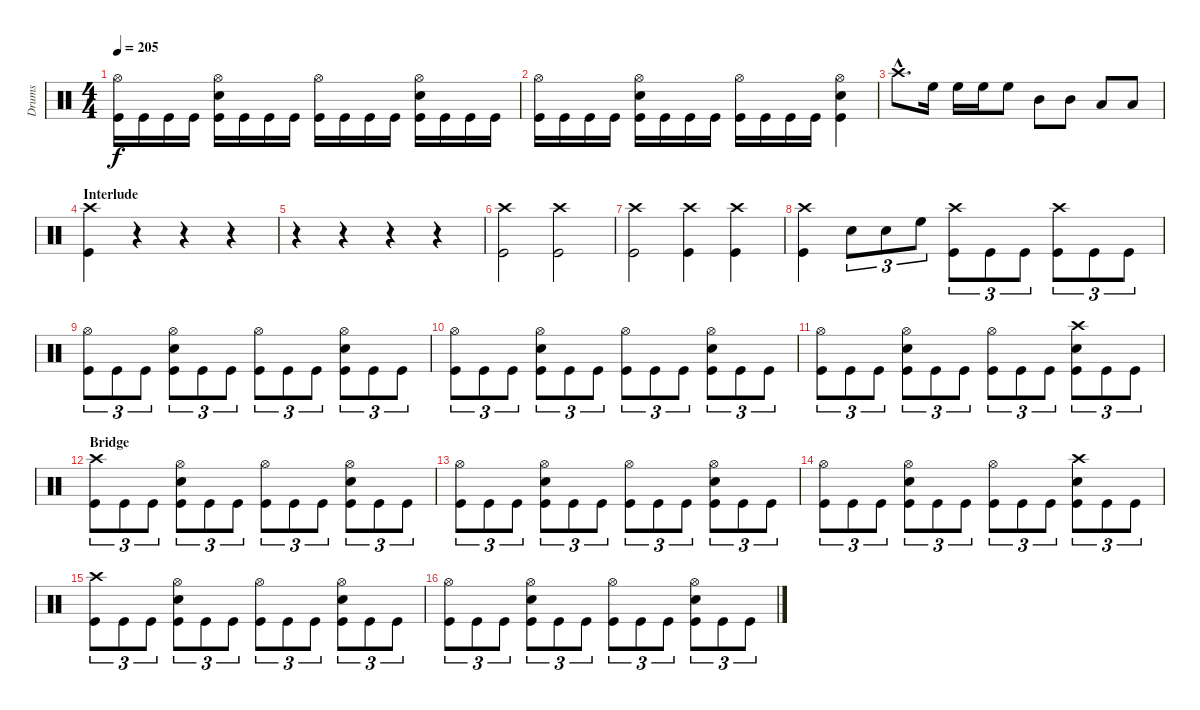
\track ("Drums" "Drums") {instrument percussion}
\staff {score}
\articulation defaults
\ts (4 4)
\tempo 205
\clef neutral
\ks c
("Hi-Hat (open)" "Kick (hit)").16{dy f} "Kick (hit)".16 "Kick (hit)".16 "Kick (hit)".16 ("Hi-Hat (open)" "Snare (hit) 2" "Kick (hit)").16 "Kick (hit)".16 "Kick (hit)".16 "Kick (hit)".16 ("Hi-Hat (open)" "Kick (hit)").16 "Kick (hit)".16 "Kick (hit)".16 "Kick (hit)".16 ("Hi-Hat (open)" "Snare (hit) 2" "Kick (hit)").16 "Kick (hit)".16 "Kick (hit)".16 "Kick (hit)".16 |
("Hi-Hat (open)" "Kick (hit)").16 "Kick (hit)".16 "Kick (hit)".16 "Kick (hit)".16 ("Hi-Hat (open)" "Snare (hit) 2" "Kick (hit)").16 "Kick (hit)".16 "Kick (hit)".16 "Kick (hit)".16 ("Hi-Hat (open)" "Kick (hit)").16 "Kick (hit)".16 "Kick (hit)".16 "Kick (hit)".16 ("Hi-Hat (open)" "Snare (hit) 2" "Kick (hit)").4 |
"Crash high (hit)"{hac}.8{d} "High Floor Tom (hit)".16 "High Floor Tom (hit)".16 "High Floor Tom (hit)".16 "High Floor Tom (hit)".8 "Mid Tom (hit)".8 "Mid Tom (hit)".8 "Low Tom (hit)".8 "Low Tom (hit)".8 |
\section ("" "Interlude")
("Crash high (hit)" "Kick (hit)").4 r.4 r.4 r.4 |
r.4 r.4 r.4 r.4 |
("Crash high (hit)" "Kick (hit)").2 ("Crash high (hit)" "Kick (hit)").2 |
("Crash high (hit)" "Kick (hit)").2 ("Crash high (hit)" "Kick (hit)").4 ("Crash high (hit)" "Kick (hit)").4 |
("Crash high (hit)" "Kick (hit)").4 "Snare (hit) 2".8{tu (3 2)} "Snare (hit) 2".8{tu (3 2)} "High Floor Tom (hit)".8{tu (3 2)} ("Crash high (hit)" "Kick (hit)").8{tu (3 2)} "Kick (hit)".8{tu (3 2)} "Kick (hit)".8{tu (3 2)} ("Crash high (hit)" "Kick (hit)").8{tu (3 2)} "Kick (hit)".8{tu (3 2)} "Kick (hit)".8{tu (3 2)} |
("Hi-Hat (open)" "Kick (hit)").8{tu (3 2)} "Kick (hit)".8{tu (3 2)} "Kick (hit)".8{tu (3 2)} ("Hi-Hat (open)" "Snare (hit) 2" "Kick (hit)").8{tu (3 2)} "Kick (hit)".8{tu (3 2)} "Kick (hit)".8{tu (3 2)} ("Hi-Hat (open)" "Kick (hit)").8{tu (3 2)} "Kick (hit)".8{tu (3 2)} "Kick (hit)".8{tu (3 2)} ("Hi-Hat (open)" "Snare (hit) 2" "Kick (hit)").8{tu (3 2)} "Kick (hit)".8{tu (3 2)} "Kick (hit)".8{tu (3 2)} |
("Hi-Hat (open)" "Kick (hit)").8{tu (3 2)} "Kick (hit)".8{tu (3 2)} "Kick (hit)".8{tu (3 2)} ("Hi-Hat (open)" "Snare (hit) 2" "Kick (hit)").8{tu (3 2)} "Kick (hit)".8{tu (3 2)} "Kick (hit)".8{tu (3 2)} ("Hi-Hat (open)" "Kick (hit)").8{tu (3 2)} "Kick (hit)".8{tu (3 2)} "Kick (hit)".8{tu (3 2)} ("Hi-Hat (open)" "Snare (hit) 2" "Kick (hit)").8{tu (3 2)} "Kick (hit)".8{tu (3 2)} "Kick (hit)".8{tu (3 2)} |
("Hi-Hat (open)" "Kick (hit)").8{tu (3 2)} "Kick (hit)".8{tu (3 2)} "Kick (hit)".8{tu (3 2)} ("Hi-Hat (open)" "Snare (hit) 2" "Kick (hit)").8{tu (3 2)} "Kick (hit)".8{tu (3 2)} "Kick (hit)".8{tu (3 2)} ("Hi-Hat (open)" "Kick (hit)").8{tu (3 2)} "Kick (hit)".8{tu (3 2)} "Kick (hit)".8{tu (3 2)} ("Crash high (hit)" "Snare (hit) 2" "Kick (hit)").8{tu (3 2)} "Kick (hit)".8{tu (3 2)} "Kick (hit)".8{tu (3 2)} |
\section ("" "Bridge")
("Crash high (hit)" "Kick (hit)").8{tu (3 2)} "Kick (hit)".8{tu (3 2)} "Kick (hit)".8{tu (3 2)} ("Hi-Hat (open)" "Snare (hit) 2" "Kick (hit)").8{tu (3 2)} "Kick (hit)".8{tu (3 2)} "Kick (hit)".8{tu (3 2)} ("Hi-Hat (open)" "Kick (hit)").8{tu (3 2)} "Kick (hit)".8{tu (3 2)} "Kick (hit)".8{tu (3 2)} ("Hi-Hat (open)" "Snare (hit) 2" "Kick (hit)").8{tu (3 2)} "Kick (hit)".8{tu (3 2)} "Kick (hit)".8{tu (3 2)} |
("Hi-Hat (open)" "Kick (hit)").8{tu (3 2)} "Kick (hit)".8{tu (3 2)} "Kick (hit)".8{tu (3 2)} ("Hi-Hat (open)" "Snare (hit) 2" "Kick (hit)").8{tu (3 2)} "Kick (hit)".8{tu (3 2)} "Kick (hit)".8{tu (3 2)} ("Hi-Hat (open)" "Kick (hit)").8{tu (3 2)} "Kick (hit)".8{tu (3 2)} "Kick (hit)".8{tu (3 2)} ("Hi-Hat (open)" "Snare (hit) 2" "Kick (hit)").8{tu (3 2)} "Kick (hit)".8{tu (3 2)} "Kick (hit)".8{tu (3 2)} |
("Hi-Hat (open)" "Kick (hit)").8{tu (3 2)} "Kick (hit)".8{tu (3 2)} "Kick (hit)".8{tu (3 2)} ("Hi-Hat (open)" "Snare (hit) 2" "Kick (hit)").8{tu (3 2)} "Kick (hit)".8{tu (3 2)} "Kick (hit)".8{tu (3 2)} ("Hi-Hat (open)" "Kick (hit)").8{tu (3 2)} "Kick (hit)".8{tu (3 2)} "Kick (hit)".8{tu (3 2)} ("Crash high (hit)" "Snare (hit) 2" "Kick (hit)").8{tu (3 2)} "Kick (hit)".8{tu (3 2)} "Kick (hit)".8{tu (3 2)} |
("Crash high (hit)" "Kick (hit)").8{tu (3 2)} "Kick (hit)".8{tu (3 2)} "Kick (hit)".8{tu (3 2)} ("Hi-Hat (open)" "Snare (hit) 2" "Kick (hit)").8{tu (3 2)} "Kick (hit)".8{tu (3 2)} "Kick (hit)".8{tu (3 2)} ("Hi-Hat (open)" "Kick (hit)").8{tu (3 2)} "Kick (hit)".8{tu (3 2)} "Kick (hit)".8{tu (3 2)} ("Hi-Hat (open)" "Snare (hit) 2" "Kick (hit)").8{tu (3 2)} "Kick (hit)".8{tu (3 2)} "Kick (hit)".8{tu (3 2)} |
("Hi-Hat (open)" "Kick (hit)").8{tu (3 2)} "Kick (hit)".8{tu (3 2)} "Kick (hit)".8{tu (3 2)} ("Hi-Hat (open)" "Snare (hit) 2" "Kick (hit)").8{tu (3 2)} "Kick (hit)".8{tu (3 2)} "Kick (hit)".8{tu (3 2)} ("Hi-Hat (open)" "Kick (hit)").8{tu (3 2)} "Kick (hit)".8{tu (3 2)} "Kick (hit)".8{tu (3 2)} ("Hi-Hat (open)" "Snare (hit) 2" "Kick (hit)").8{tu (3 2)} "Kick (hit)".8{tu (3 2)} "Kick (hit)".8{tu (3 2)}
